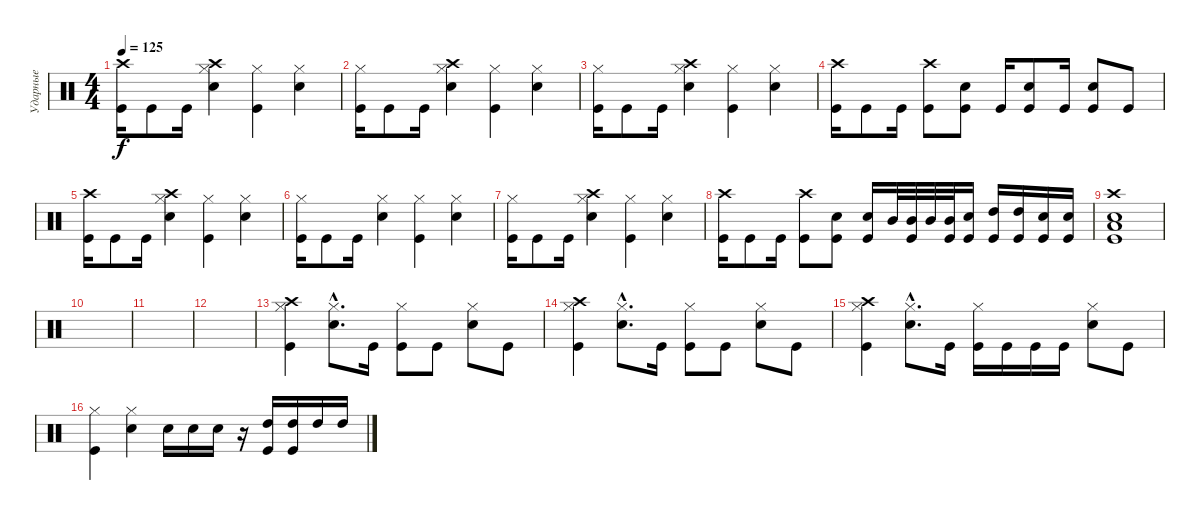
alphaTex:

\track ("Ударные" "Ударные") {instrument percussion}
\staff {score}
\articulation defaults
\ts (4 4)
\tempo 125
\clef neutral
\ks c
("Crash high (hit)" "Kick (hit)").16{dy f} "Kick (hit)".8 "Kick (hit)".16 ("Crash high (hit)" "Hi-Hat (closed)" "Electric Snare (hit)").4 ("Hi-Hat (closed)" "Kick (hit)").4 ("Hi-Hat (closed)" "Electric Snare (hit)").4 |
("Hi-Hat (closed)" "Kick (hit)").16 "Kick (hit)".8 "Kick (hit)".16 ("Crash high (hit)" "Hi-Hat (closed)" "Electric Snare (hit)").4 ("Hi-Hat (closed)" "Kick (hit)").4 ("Hi-Hat (closed)" "Electric Snare (hit)").4 |
("Hi-Hat (closed)" "Kick (hit)").16 "Kick (hit)".8 "Kick (hit)".16 ("Crash high (hit)" "Hi-Hat (closed)" "Electric Snare (hit)").4 ("Hi-Hat (closed)" "Kick (hit)").4 ("Hi-Hat (closed)" "Electric Snare (hit)").4 |
("Crash high (hit)" "Kick (hit)").16 "Kick (hit)".8 "Kick (hit)".16 ("Crash high (hit)" "Kick (hit)").8 ("Electric Snare (hit)" "Kick (hit)").8 "Kick (hit)".16 ("Electric Snare (hit)" "Kick (hit)").8 "Kick (hit)".16 ("Electric Snare (hit)" "Kick (hit)").8 "Kick (hit)".8 |
("Crash high (hit)" "Kick (hit)").16 "Kick (hit)".8 "Kick (hit)".16 ("Crash high (hit)" "Hi-Hat (closed)" "Electric Snare (hit)").4 ("Hi-Hat (closed)" "Kick (hit)").4 ("Hi-Hat (closed)" "Electric Snare (hit)").4 |
("Hi-Hat (closed)" "Kick (hit)").16 "Kick (hit)".8 "Kick (hit)".16 ("Hi-Hat (closed)" "Electric Snare (hit)").4 ("Hi-Hat (closed)" "Kick (hit)").4 ("Hi-Hat (closed)" "Electric Snare (hit)").4 |
("Hi-Hat (closed)" "Kick (hit)").16 "Kick (hit)".8 "Kick (hit)".16 ("Crash high (hit)" "Hi-Hat (closed)" "Electric Snare (hit)").4 ("Hi-Hat (closed)" "Kick (hit)").4 ("Hi-Hat (closed)" "Electric Snare (hit)").4 |
("Crash high (hit)" "Kick (hit)").16 "Kick (hit)".8 "Kick (hit)".16 ("Crash high (hit)" "Kick (hit)").8 ("Electric Snare (hit)" "Kick (hit)").8 ("Electric Snare (hit)" "Kick (hit)").16 "Mid Tom (hit)".32 ("Mid Tom (hit)" "Kick (hit)").32 "Mid Tom (hit)".32 ("Mid Tom (hit)" "Kick (hit)").32 ("Electric Snare (hit)" "Kick (hit)").16 ("High Tom (hit)" "Kick (hit)").16 ("High Tom (hit)" "Kick (hit)").16 ("Electric Snare (hit)" "Kick (hit)").16 ("Electric Snare (hit)" "Kick (hit)").16 |
("Crash high (hit)" "Electric Snare (hit)" "Low Tom (hit)" "Kick (hit)").1 |
|
|
|
("Crash high (hit)" "Hi-Hat (closed)" "Kick (hit)").4 ("Hi-Hat (closed)"{hac} "Electric Snare (hit)"{hac}).8{d} "Kick (hit)".16 ("Hi-Hat (closed)" "Kick (hit)").8 "Kick (hit)".8 ("Hi-Hat (closed)" "Electric Snare (hit)").8 "Kick (hit)".8 |
("Crash high (hit)" "Hi-Hat (closed)" "Kick (hit)").4 ("Hi-Hat (closed)"{hac} "Electric Snare (hit)"{hac}).8{d} "Kick (hit)".16 ("Hi-Hat (closed)" "Kick (hit)").8 "Kick (hit)".8 ("Hi-Hat (closed)" "Electric Snare (hit)").8 "Kick (hit)".8 |
("Crash high (hit)" "Hi-Hat (closed)" "Kick (hit)").4 ("Hi-Hat (closed)"{hac} "Electric Snare (hit)"{hac}).8{d} "Kick (hit)".16 ("Hi-Hat (closed)" "Kick (hit)").16 "Kick (hit)".16 "Kick (hit)".16 "Kick (hit)".16 ("Hi-Hat (closed)" "Electric Snare (hit)").8 "Kick (hit)".8 |
("Hi-Hat (closed)" "Kick (hit)").4 ("Hi-Hat (closed)" "Electric Snare (hit)").4 "Electric Snare (hit)".16 "Electric Snare (hit)".16 "Electric Snare (hit)".16 r.16 ("High Tom (hit)" "Kick (hit)").16 ("High Tom (hit)" "Kick (hit)").16 "High Tom (hit)".16 "High Tom (hit)".16
